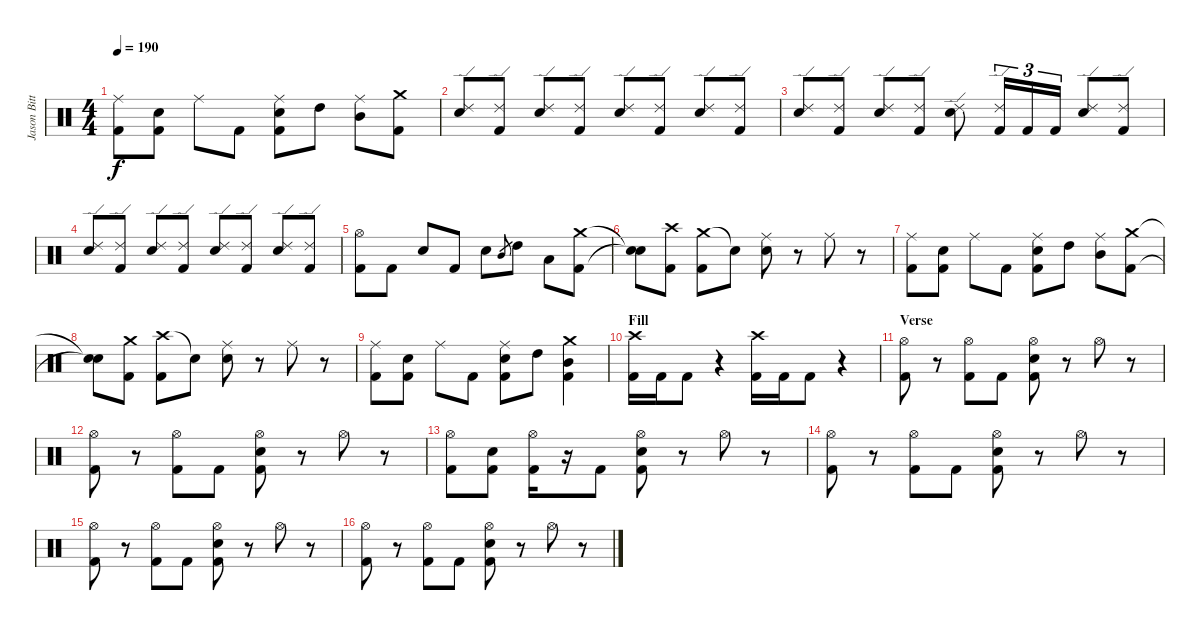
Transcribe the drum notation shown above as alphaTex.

\track ("Jason Bittner" "Jason Bitt") {instrument percussion}
\staff {score}
\articulation defaults
\ts (4 4)
\tempo 190
\clef neutral
\ks c
("Ride (middle)" "Kick (hit) 2").8{dy f} ("Snare (hit) 2" "Kick (hit) 2").8 "Ride (middle)".8 "Kick (hit) 2".8 ("Ride (middle)" "Snare (hit) 2" "Kick (hit) 2").8 "High Tom (hit)".8 ("Ride (middle)" "Mid Tom (hit)").8 ("Crash medium (hit)" "Kick (hit) 2").8 |
("Ride (edge) 2" "Snare (hit) 2").8 ("Ride (edge) 2" "Kick (hit) 2").8 ("Ride (edge) 2" "Snare (hit) 2").8 ("Ride (edge) 2" "Kick (hit) 2").8 ("Ride (edge) 2" "Snare (hit) 2").8 ("Ride (edge) 2" "Kick (hit) 2").8 ("Ride (edge) 2" "Snare (hit) 2").8 ("Ride (edge) 2" "Kick (hit) 2").8 |
("Ride (edge) 2" "Snare (hit) 2").8 ("Ride (edge) 2" "Kick (hit) 2").8 ("Ride (edge) 2" "Snare (hit) 2").8 ("Ride (edge) 2" "Kick (hit) 2").8 ("Ride (edge) 2" "Snare (hit) 2").8 ("Ride (edge) 2" "Kick (hit) 2").16{tu (3 2)} "Kick (hit) 2".16{tu (3 2)} "Kick (hit) 2".16{tu (3 2)} ("Ride (edge) 2" "Snare (hit) 2").8 ("Ride (edge) 2" "Kick (hit) 2").8 |
("Ride (edge) 2" "Snare (hit) 2").8 ("Ride (edge) 2" "Kick (hit) 2").8 ("Ride (edge) 2" "Snare (hit) 2").8 ("Ride (edge) 2" "Kick (hit) 2").8 ("Ride (edge) 2" "Snare (hit) 2").8 ("Ride (edge) 2" "Kick (hit) 2").8 ("Ride (edge) 2" "Snare (hit) 2").8 ("Ride (edge) 2" "Kick (hit) 2").8 |
("Hi-Hat (open)" "Kick (hit) 2").8 "Kick (hit) 2".8 "Snare (hit) 2".8 "Kick (hit) 2".8 "Snare (hit) 2".8 "Mid Tom (hit)".8{gr} "High Tom (hit)".8 "Low Tom (hit)".8 ("Crash medium (hit)" "Kick (hit) 2").8 |
("Snare (hit)"{t} "Snare (hit)"{t}).8 ("Crash high (hit)" "Kick (hit) 2").8 ("Crash medium (hit)" "Kick (hit) 2").8 "Snare (hit)"{t}.8 ("Ride (middle)" "Snare (hit) 2").8 r.8 "Ride (middle)".8 r.8 |
("Ride (middle)" "Kick (hit) 2").8 ("Snare (hit) 2" "Kick (hit) 2").8 "Ride (middle)".8 "Kick (hit) 2".8 ("Ride (middle)" "Snare (hit) 2" "Kick (hit) 2").8 "High Tom (hit)".8 ("Ride (middle)" "Mid Tom (hit)").8 ("Crash medium (hit)" "Kick (hit) 2").8 |
("Snare (hit)"{t} "Snare (hit)"{t}).8 ("Crash medium (hit)" "Kick (hit) 2").8 ("Crash high (hit)" "Kick (hit) 2").8 "Snare (hit)"{t}.8 ("Ride (middle)" "Snare (hit) 2").8 r.8 "Ride (middle)".8 r.8 |
("Ride (middle)" "Kick (hit) 2").8 ("Snare (hit) 2" "Kick (hit) 2").8 "Ride (middle)".8 "Kick (hit) 2".8 ("Ride (middle)" "Snare (hit) 2" "Kick (hit) 2").8 "High Tom (hit)".8 ("Crash medium (hit)" "Mid Tom (hit)" "Kick (hit) 2").4 |
\section ("" "Fill")
("Crash high (hit)" "Kick (hit) 2").16 "Kick (hit) 2".16 "Kick (hit) 2".8 r.4 ("Crash high (hit)" "Kick (hit) 2").16 "Kick (hit) 2".16 "Kick (hit) 2".8 r.4 |
\section ("" "Verse")
("Hi-Hat (open)" "Kick (hit) 2").8 r.8 ("Hi-Hat (open)" "Kick (hit) 2").8 "Kick (hit) 2".8 ("Hi-Hat (open)" "Snare (hit) 2" "Kick (hit) 2").8 r.8 "Hi-Hat (open)".8 r.8 |
("Hi-Hat (open)" "Kick (hit) 2").8 r.8 ("Hi-Hat (open)" "Kick (hit) 2").8 "Kick (hit) 2".8 ("Hi-Hat (open)" "Snare (hit) 2" "Kick (hit) 2").8 r.8 "Hi-Hat (open)".8 r.8 |
("Hi-Hat (open)" "Kick (hit) 2").8 ("Snare (hit) 2" "Kick (hit) 2").8 ("Hi-Hat (open)" "Kick (hit) 2").16 r.16 "Kick (hit) 2".8 ("Hi-Hat (open)" "Snare (hit) 2" "Kick (hit) 2").8 r.8 "Hi-Hat (open)".8 r.8 |
("Hi-Hat (open)" "Kick (hit) 2").8 r.8 ("Hi-Hat (open)" "Kick (hit) 2").8 "Kick (hit) 2".8 ("Hi-Hat (open)" "Snare (hit) 2" "Kick (hit) 2").8 r.8 "Hi-Hat (open)".8 r.8 |
("Hi-Hat (open)" "Kick (hit) 2").8 r.8 ("Hi-Hat (open)" "Kick (hit) 2").8 "Kick (hit) 2".8 ("Hi-Hat (open)" "Snare (hit) 2" "Kick (hit) 2").8 r.8 "Hi-Hat (open)".8 r.8 |
("Hi-Hat (open)" "Kick (hit) 2").8 r.8 ("Hi-Hat (open)" "Kick (hit) 2").8 "Kick (hit) 2".8 ("Hi-Hat (open)" "Snare (hit) 2" "Kick (hit) 2").8 r.8 "Hi-Hat (open)".8 r.8
